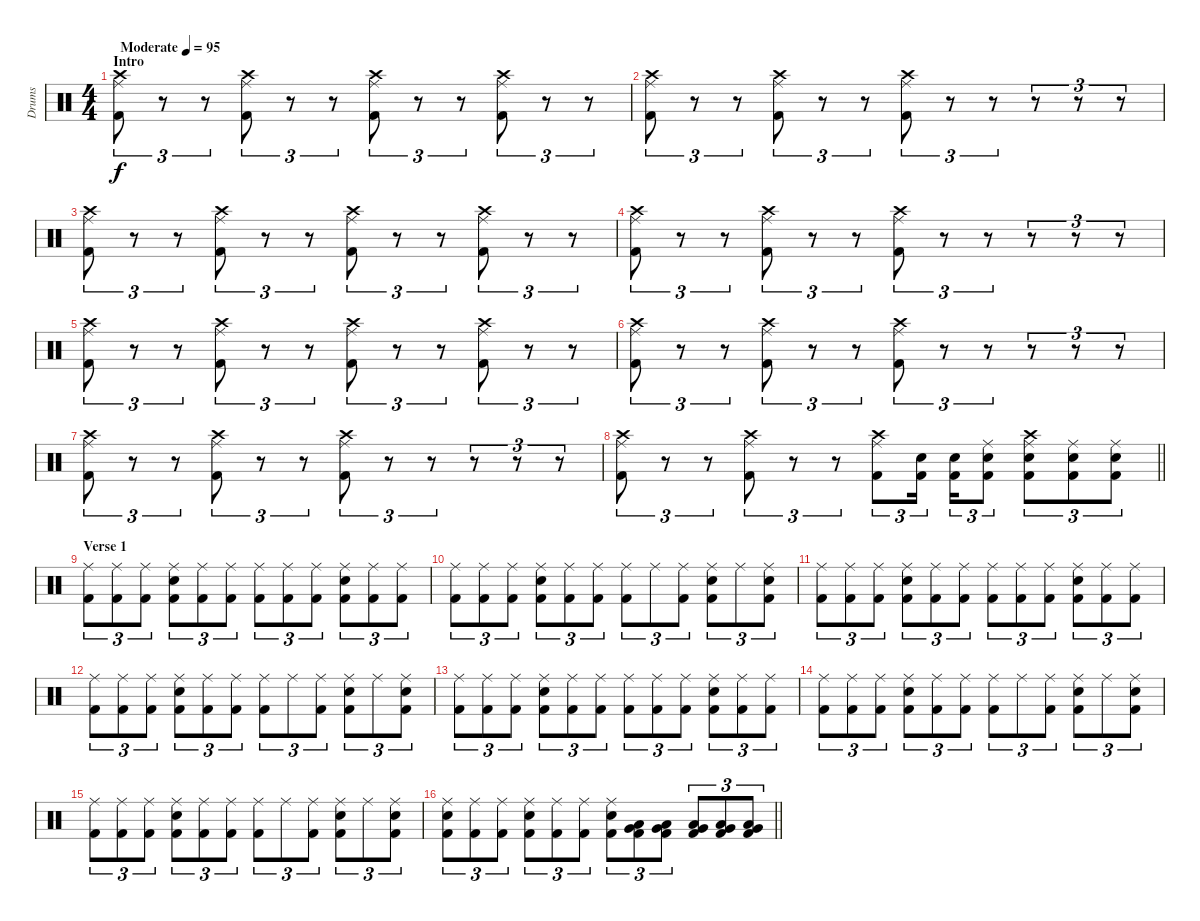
\track ("Drums" "Drums") {instrument percussion}
\staff {score}
\articulation defaults
\ts (4 4)
\section ("" "Intro")
\tempo (95 "Moderate")
\clef neutral
\ks c
("Ride (middle)" "Kick (hit) 2" "Crash high (hit)").8{tu (3 2) dy f} r.8{tu (3 2)} r.8{tu (3 2)} ("Ride (middle)" "Kick (hit) 2" "Crash high (hit)").8{tu (3 2)} r.8{tu (3 2)} r.8{tu (3 2)} ("Ride (middle)" "Kick (hit) 2" "Crash high (hit)").8{tu (3 2)} r.8{tu (3 2)} r.8{tu (3 2)} ("Ride (middle)" "Kick (hit) 2" "Crash high (hit)").8{tu (3 2)} r.8{tu (3 2)} r.8{tu (3 2)} |
("Ride (middle)" "Kick (hit) 2" "Crash high (hit)").8{tu (3 2)} r.8{tu (3 2)} r.8{tu (3 2)} ("Ride (middle)" "Kick (hit) 2" "Crash high (hit)").8{tu (3 2)} r.8{tu (3 2)} r.8{tu (3 2)} ("Ride (middle)" "Kick (hit) 2" "Crash high (hit)").8{tu (3 2)} r.8{tu (3 2)} r.8{tu (3 2)} r.8{tu (3 2)} r.8{tu (3 2)} r.8{tu (3 2)} |
("Ride (middle)" "Kick (hit) 2" "Crash high (hit)").8{tu (3 2)} r.8{tu (3 2)} r.8{tu (3 2)} ("Ride (middle)" "Kick (hit) 2" "Crash high (hit)").8{tu (3 2)} r.8{tu (3 2)} r.8{tu (3 2)} ("Ride (middle)" "Kick (hit) 2" "Crash high (hit)").8{tu (3 2)} r.8{tu (3 2)} r.8{tu (3 2)} ("Ride (middle)" "Kick (hit) 2" "Crash high (hit)").8{tu (3 2)} r.8{tu (3 2)} r.8{tu (3 2)} |
("Ride (middle)" "Kick (hit) 2" "Crash high (hit)").8{tu (3 2)} r.8{tu (3 2)} r.8{tu (3 2)} ("Ride (middle)" "Kick (hit) 2" "Crash high (hit)").8{tu (3 2)} r.8{tu (3 2)} r.8{tu (3 2)} ("Ride (middle)" "Kick (hit) 2" "Crash high (hit)").8{tu (3 2)} r.8{tu (3 2)} r.8{tu (3 2)} r.8{tu (3 2)} r.8{tu (3 2)} r.8{tu (3 2)} |
("Ride (middle)" "Kick (hit) 2" "Crash high (hit)").8{tu (3 2)} r.8{tu (3 2)} r.8{tu (3 2)} ("Ride (middle)" "Kick (hit) 2" "Crash high (hit)").8{tu (3 2)} r.8{tu (3 2)} r.8{tu (3 2)} ("Ride (middle)" "Kick (hit) 2" "Crash high (hit)").8{tu (3 2)} r.8{tu (3 2)} r.8{tu (3 2)} ("Ride (middle)" "Kick (hit) 2" "Crash high (hit)").8{tu (3 2)} r.8{tu (3 2)} r.8{tu (3 2)} |
("Ride (middle)" "Kick (hit) 2" "Crash high (hit)").8{tu (3 2)} r.8{tu (3 2)} r.8{tu (3 2)} ("Ride (middle)" "Kick (hit) 2" "Crash high (hit)").8{tu (3 2)} r.8{tu (3 2)} r.8{tu (3 2)} ("Ride (middle)" "Kick (hit) 2" "Crash high (hit)").8{tu (3 2)} r.8{tu (3 2)} r.8{tu (3 2)} r.8{tu (3 2)} r.8{tu (3 2)} r.8{tu (3 2)} |
("Ride (middle)" "Kick (hit) 2" "Crash high (hit)").8{tu (3 2)} r.8{tu (3 2)} r.8{tu (3 2)} ("Ride (middle)" "Kick (hit) 2" "Crash high (hit)").8{tu (3 2)} r.8{tu (3 2)} r.8{tu (3 2)} ("Ride (middle)" "Kick (hit) 2" "Crash high (hit)").8{tu (3 2)} r.8{tu (3 2)} r.8{tu (3 2)} r.8{tu (3 2)} r.8{tu (3 2)} r.8{tu (3 2)} |
\barLineRight lightlight
("Ride (middle)" "Kick (hit) 2" "Crash high (hit)").8{tu (3 2)} r.8{tu (3 2)} r.8{tu (3 2)} ("Ride (middle)" "Kick (hit) 2" "Crash high (hit)").8{tu (3 2)} r.8{tu (3 2)} r.8{tu (3 2)} ("Ride (middle)" "Kick (hit) 2" "Crash high (hit)").8{tu (3 2)} ("Kick (hit) 2" "Electric Snare (hit)").16{tu (3 2) beam splitsecondary} ("Kick (hit) 2" "Electric Snare (hit)").16{tu (3 2)} ("Ride (middle)" "Kick (hit) 2" "Electric Snare (hit)").8{tu (3 2)} ("Ride (middle)" "Kick (hit) 2" "Electric Snare (hit)" "Crash high (hit)").8{tu (3 2)} ("Ride (middle)" "Kick (hit) 2" "Electric Snare (hit)").8{tu (3 2)} ("Ride (middle)" "Kick (hit) 2" "Electric Snare (hit)").8{tu (3 2)} |
\section ("" "Verse 1")
("Ride (middle)" "Kick (hit) 2").8{tu (3 2)} ("Ride (middle)" "Kick (hit) 2").8{tu (3 2)} ("Ride (middle)" "Kick (hit) 2").8{tu (3 2)} ("Ride (middle)" "Kick (hit) 2" "Electric Snare (hit)").8{tu (3 2)} ("Ride (middle)" "Kick (hit) 2").8{tu (3 2)} ("Ride (middle)" "Kick (hit) 2").8{tu (3 2)} ("Ride (middle)" "Kick (hit) 2").8{tu (3 2)} ("Ride (middle)" "Kick (hit) 2").8{tu (3 2)} ("Ride (middle)" "Kick (hit) 2").8{tu (3 2)} ("Ride (middle)" "Kick (hit) 2" "Electric Snare (hit)").8{tu (3 2)} ("Ride (middle)" "Kick (hit) 2").8{tu (3 2)} ("Ride (middle)" "Kick (hit) 2").8{tu (3 2)} |
("Ride (middle)" "Kick (hit) 2").8{tu (3 2)} ("Ride (middle)" "Kick (hit) 2").8{tu (3 2)} ("Ride (middle)" "Kick (hit) 2").8{tu (3 2)} ("Ride (middle)" "Kick (hit) 2" "Electric Snare (hit)").8{tu (3 2)} ("Ride (middle)" "Kick (hit) 2").8{tu (3 2)} ("Ride (middle)" "Kick (hit) 2").8{tu (3 2)} ("Ride (middle)" "Kick (hit) 2").8{tu (3 2)} "Ride (middle)".8{tu (3 2)} ("Ride (middle)" "Kick (hit) 2").8{tu (3 2)} ("Ride (middle)" "Kick (hit) 2" "Electric Snare (hit)").8{tu (3 2)} "Ride (middle)".8{tu (3 2)} ("Ride (middle)" "Kick (hit) 2" "Snare (hit) 2").8{tu (3 2)} |
("Ride (middle)" "Kick (hit) 2").8{tu (3 2)} ("Ride (middle)" "Kick (hit) 2").8{tu (3 2)} ("Ride (middle)" "Kick (hit) 2").8{tu (3 2)} ("Ride (middle)" "Kick (hit) 2" "Electric Snare (hit)").8{tu (3 2)} ("Ride (middle)" "Kick (hit) 2").8{tu (3 2)} ("Ride (middle)" "Kick (hit) 2").8{tu (3 2)} ("Ride (middle)" "Kick (hit) 2").8{tu (3 2)} ("Ride (middle)" "Kick (hit) 2").8{tu (3 2)} ("Ride (middle)" "Kick (hit) 2").8{tu (3 2)} ("Ride (middle)" "Kick (hit) 2" "Electric Snare (hit)").8{tu (3 2)} ("Ride (middle)" "Kick (hit) 2").8{tu (3 2)} ("Ride (middle)" "Kick (hit) 2").8{tu (3 2)} |
("Ride (middle)" "Kick (hit) 2").8{tu (3 2)} ("Ride (middle)" "Kick (hit) 2").8{tu (3 2)} ("Ride (middle)" "Kick (hit) 2").8{tu (3 2)} ("Ride (middle)" "Kick (hit) 2" "Electric Snare (hit)").8{tu (3 2)} ("Ride (middle)" "Kick (hit) 2").8{tu (3 2)} ("Ride (middle)" "Kick (hit) 2").8{tu (3 2)} ("Ride (middle)" "Kick (hit) 2").8{tu (3 2)} "Ride (middle)".8{tu (3 2)} ("Ride (middle)" "Kick (hit) 2").8{tu (3 2)} ("Ride (middle)" "Kick (hit) 2" "Electric Snare (hit)").8{tu (3 2)} "Ride (middle)".8{tu (3 2)} ("Ride (middle)" "Kick (hit) 2" "Snare (hit) 2").8{tu (3 2)} |
("Ride (middle)" "Kick (hit) 2").8{tu (3 2)} ("Ride (middle)" "Kick (hit) 2").8{tu (3 2)} ("Ride (middle)" "Kick (hit) 2").8{tu (3 2)} ("Ride (middle)" "Kick (hit) 2" "Electric Snare (hit)").8{tu (3 2)} ("Ride (middle)" "Kick (hit) 2").8{tu (3 2)} ("Ride (middle)" "Kick (hit) 2").8{tu (3 2)} ("Ride (middle)" "Kick (hit) 2").8{tu (3 2)} ("Ride (middle)" "Kick (hit) 2").8{tu (3 2)} ("Ride (middle)" "Kick (hit) 2").8{tu (3 2)} ("Ride (middle)" "Kick (hit) 2" "Electric Snare (hit)").8{tu (3 2)} ("Ride (middle)" "Kick (hit) 2").8{tu (3 2)} ("Ride (middle)" "Kick (hit) 2").8{tu (3 2)} |
("Ride (middle)" "Kick (hit) 2").8{tu (3 2)} ("Ride (middle)" "Kick (hit) 2").8{tu (3 2)} ("Ride (middle)" "Kick (hit) 2").8{tu (3 2)} ("Ride (middle)" "Kick (hit) 2" "Electric Snare (hit)").8{tu (3 2)} ("Ride (middle)" "Kick (hit) 2").8{tu (3 2)} ("Ride (middle)" "Kick (hit) 2").8{tu (3 2)} ("Ride (middle)" "Kick (hit) 2").8{tu (3 2)} "Ride (middle)".8{tu (3 2)} ("Ride (middle)" "Kick (hit) 2").8{tu (3 2)} ("Ride (middle)" "Kick (hit) 2" "Electric Snare (hit)").8{tu (3 2)} "Ride (middle)".8{tu (3 2)} ("Ride (middle)" "Kick (hit) 2" "Snare (hit) 2").8{tu (3 2)} |
("Ride (middle)" "Kick (hit) 2").8{tu (3 2)} ("Ride (middle)" "Kick (hit) 2").8{tu (3 2)} ("Ride (middle)" "Kick (hit) 2").8{tu (3 2)} ("Ride (middle)" "Kick (hit) 2" "Electric Snare (hit)").8{tu (3 2)} ("Ride (middle)" "Kick (hit) 2").8{tu (3 2)} ("Ride (middle)" "Kick (hit) 2").8{tu (3 2)} ("Ride (middle)" "Kick (hit) 2").8{tu (3 2)} "Ride (middle)".8{tu (3 2)} ("Ride (middle)" "Kick (hit) 2").8{tu (3 2)} ("Ride (middle)" "Kick (hit) 2" "Electric Snare (hit)").8{tu (3 2)} "Ride (middle)".8{tu (3 2)} ("Ride (middle)" "Kick (hit) 2" "Snare (hit) 2").8{tu (3 2)} |
\barLineRight lightlight
("Ride (middle)" "Kick (hit) 2" "Snare (hit) 2").8{tu (3 2)} ("Ride (middle)" "Kick (hit) 2").8{tu (3 2)} ("Ride (middle)" "Kick (hit) 2").8{tu (3 2)} ("Ride (middle)" "Kick (hit) 2" "Snare (hit) 2").8{tu (3 2)} ("Ride (middle)" "Kick (hit) 2").8{tu (3 2)} ("Ride (middle)" "Kick (hit) 2").8{tu (3 2)} ("Ride (middle)" "Kick (hit) 2" "Snare (hit) 2").8{tu (3 2)} ("Very Low Tom (hit)" "Low Tom (hit)" "Kick (hit) 2").8{tu (3 2)} ("Very Low Tom (hit)" "Low Tom (hit)" "Kick (hit) 2").8{tu (3 2)} ("Very Low Tom (hit)" "Low Tom (hit)" "Kick (hit) 2").8{tu (3 2)} ("Low Floor Tom (hit)" "Very Low Tom (hit)" "Kick (hit) 2").8{tu (3 2)} ("Low Floor Tom (hit)" "Very Low Tom (hit)" "Kick (hit) 2").8{tu (3 2)}
